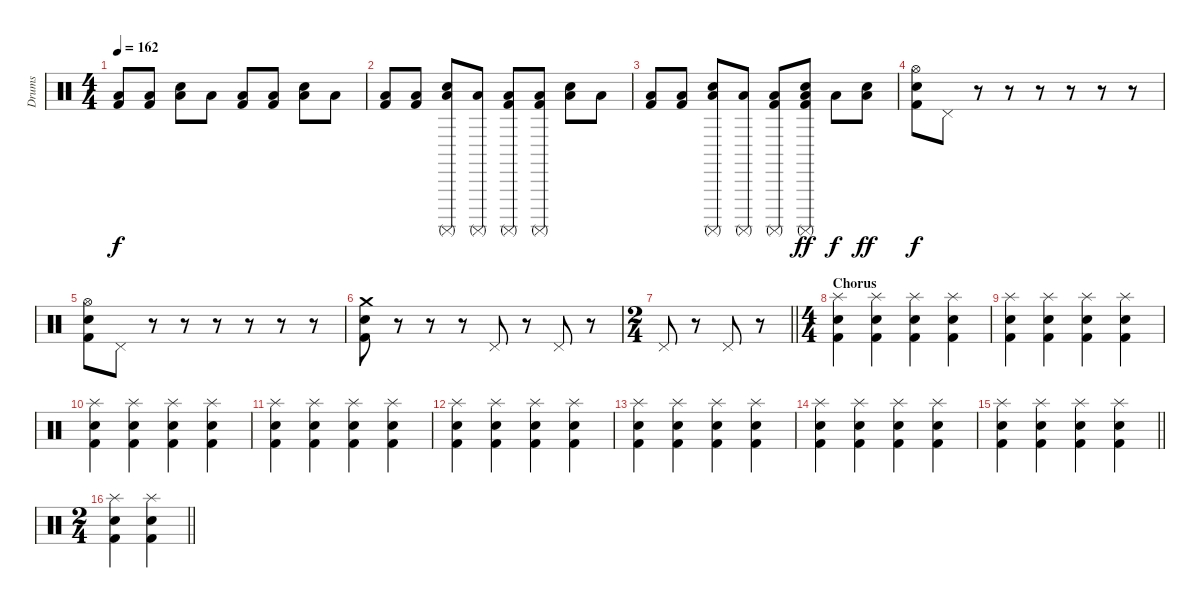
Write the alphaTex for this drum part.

\track ("Drums" "Drums") {instrument percussion}
\staff {score}
\articulation defaults
\ts (4 4)
\tempo 162
\clef neutral
\ks c
("Low Floor Tom (hit)" "Kick (hit) 2").8{dy f} ("Low Floor Tom (hit)" "Kick (hit) 2").8 ("Electric Snare (hit)" "Low Floor Tom (hit)").8 "Low Floor Tom (hit)".8 ("Low Floor Tom (hit)" "Kick (hit) 2").8 ("Low Floor Tom (hit)" "Kick (hit) 2").8 ("Electric Snare (hit)" "Low Floor Tom (hit)").8 "Low Floor Tom (hit)".8 |
("Low Floor Tom (hit)" "Kick (hit) 2").8 ("Low Floor Tom (hit)" "Kick (hit) 2").8 ("Surdo (mute)" "Electric Snare (hit)" "Low Floor Tom (hit)").8 ("Surdo (mute)" "Low Floor Tom (hit)").8 ("Surdo (mute)" "Low Floor Tom (hit)" "Kick (hit) 2").8 ("Surdo (mute)" "Low Floor Tom (hit)" "Kick (hit) 2").8 ("Electric Snare (hit)" "Low Floor Tom (hit)").8 "Low Floor Tom (hit)".8 |
("Low Floor Tom (hit)" "Kick (hit) 2").8 ("Low Floor Tom (hit)" "Kick (hit) 2").8 ("Surdo (mute)" "Electric Snare (hit)" "Low Floor Tom (hit)").8 ("Surdo (mute)" "Low Floor Tom (hit)").8 ("Surdo (mute)" "Low Floor Tom (hit)" "Kick (hit) 2").8 ("Surdo (mute)" "Electric Snare (hit)" "Low Floor Tom (hit)" "Kick (hit) 2").8{dy ff} "Low Floor Tom (hit)".8{dy f} ("Electric Snare (hit)" "Low Floor Tom (hit)").8{dy ff} |
("Hi-Hat (open)" "Electric Snare (hit)" "Kick (hit) 2").8{dy f} "Pedal Hi-Hat (hit)".8 r.8 r.8 r.8 r.8 r.8 r.8 |
("Hi-Hat (open)" "Electric Snare (hit)" "Kick (hit) 2").8 "Pedal Hi-Hat (hit)".8 r.8 r.8 r.8 r.8 r.8 r.8 |
("Crash medium (hit)" "Electric Snare (hit)" "Kick (hit) 2").8 r.8 r.8 r.8 "Pedal Hi-Hat (hit)".8 r.8 "Pedal Hi-Hat (hit)".8 r.8 |
\ts (2 4)
\barLineRight lightlight "Pedal Hi-Hat (hit)".8
r.8 "Pedal Hi-Hat (hit)".8 r.8 |
\ts (4 4)
\section ("" "Chorus")
("Splash (hit)" "Electric Snare (hit)" "Kick (hit) 2").4 ("Splash (hit)" "Electric Snare (hit)" "Kick (hit) 2").4 ("Splash (hit)" "Electric Snare (hit)" "Kick (hit) 2").4 ("Splash (hit)" "Electric Snare (hit)" "Kick (hit) 2").4 |
("Splash (hit)" "Electric Snare (hit)" "Kick (hit) 2").4 ("Splash (hit)" "Electric Snare (hit)" "Kick (hit) 2").4 ("Splash (hit)" "Electric Snare (hit)" "Kick (hit) 2").4 ("Splash (hit)" "Electric Snare (hit)" "Kick (hit) 2").4 |
("Splash (hit)" "Electric Snare (hit)" "Kick (hit) 2").4 ("Splash (hit)" "Electric Snare (hit)" "Kick (hit) 2").4 ("Splash (hit)" "Electric Snare (hit)" "Kick (hit) 2").4 ("Splash (hit)" "Electric Snare (hit)" "Kick (hit) 2").4 |
("Splash (hit)" "Electric Snare (hit)" "Kick (hit) 2").4 ("Splash (hit)" "Electric Snare (hit)" "Kick (hit) 2").4 ("Splash (hit)" "Electric Snare (hit)" "Kick (hit) 2").4 ("Splash (hit)" "Electric Snare (hit)" "Kick (hit) 2").4 |
("Splash (hit)" "Electric Snare (hit)" "Kick (hit) 2").4 ("Splash (hit)" "Electric Snare (hit)" "Kick (hit) 2").4 ("Splash (hit)" "Electric Snare (hit)" "Kick (hit) 2").4 ("Splash (hit)" "Electric Snare (hit)" "Kick (hit) 2").4 |
("Splash (hit)" "Electric Snare (hit)" "Kick (hit) 2").4 ("Splash (hit)" "Electric Snare (hit)" "Kick (hit) 2").4 ("Splash (hit)" "Electric Snare (hit)" "Kick (hit) 2").4 ("Splash (hit)" "Electric Snare (hit)" "Kick (hit) 2").4 |
("Splash (hit)" "Electric Snare (hit)" "Kick (hit) 2").4 ("Splash (hit)" "Electric Snare (hit)" "Kick (hit) 2").4 ("Splash (hit)" "Electric Snare (hit)" "Kick (hit) 2").4 ("Splash (hit)" "Electric Snare (hit)" "Kick (hit) 2").4 |
\barLineRight lightlight
("Splash (hit)" "Electric Snare (hit)" "Kick (hit) 2").4 ("Splash (hit)" "Electric Snare (hit)" "Kick (hit) 2").4 ("Splash (hit)" "Electric Snare (hit)" "Kick (hit) 2").4 ("Splash (hit)" "Electric Snare (hit)" "Kick (hit) 2").4 |
\ts (2 4)
\barLineRight lightlight
("Splash (hit)" "Electric Snare (hit)" "Kick (hit) 2").4 ("Splash (hit)" "Electric Snare (hit)" "Kick (hit) 2").4
